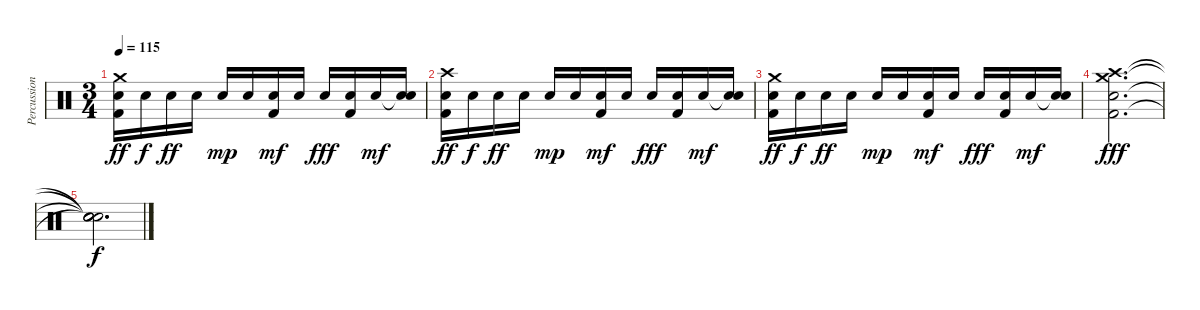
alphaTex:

\track ("Percussion 1" "Percussion") {instrument percussion}
\staff {score}
\articulation defaults
\ts (3 4)
\tempo 115
\clef neutral
\ks c
("Crash medium (hit)" "Snare (hit) 2" "Kick (hit) 2").16{dy ff} "Snare (hit) 2".16{dy f} "Snare (hit) 2".16{dy ff} "Snare (hit) 2".16 "Snare (hit) 2".16{dy mp} "Snare (hit) 2".16 ("Snare (hit) 2" "Kick (hit) 2").16{dy mf} "Snare (hit) 2".16 "Snare (hit) 2".16{dy fff} ("Snare (hit) 2" "Kick (hit) 2").16 "Snare (hit) 2".16{dy mf} ("Snare (hit)"{t} "Snare (hit) 2").16 |
("Crash high (hit)" "Snare (hit) 2" "Kick (hit) 2").16{dy ff} "Snare (hit) 2".16{dy f} "Snare (hit) 2".16{dy ff} "Snare (hit) 2".16 "Snare (hit) 2".16{dy mp} "Snare (hit) 2".16 ("Snare (hit) 2" "Kick (hit) 2").16{dy mf} "Snare (hit) 2".16 "Snare (hit) 2".16{dy fff} ("Snare (hit) 2" "Kick (hit) 2").16 "Snare (hit) 2".16{dy mf} ("Snare (hit)"{t} "Snare (hit) 2").16 |
("Crash medium (hit)" "Snare (hit) 2" "Kick (hit) 2").16{dy ff} "Snare (hit) 2".16{dy f} "Snare (hit) 2".16{dy ff} "Snare (hit) 2".16 "Snare (hit) 2".16{dy mp} "Snare (hit) 2".16 ("Snare (hit) 2" "Kick (hit) 2").16{dy mf} "Snare (hit) 2".16 "Snare (hit) 2".16{dy fff} ("Snare (hit) 2" "Kick (hit) 2").16 "Snare (hit) 2".16{dy mf} ("Snare (hit)"{t} "Snare (hit) 2").16 |
("Crash medium (hit)" "Crash high (hit)" "Snare (hit) 2" "Kick (hit) 2").2{d dy fff} |
("Snare (hit)"{t} "Snare (hit)"{t} "Snare (hit)"{t} "Snare (hit)"{t}).2{d dy f}
